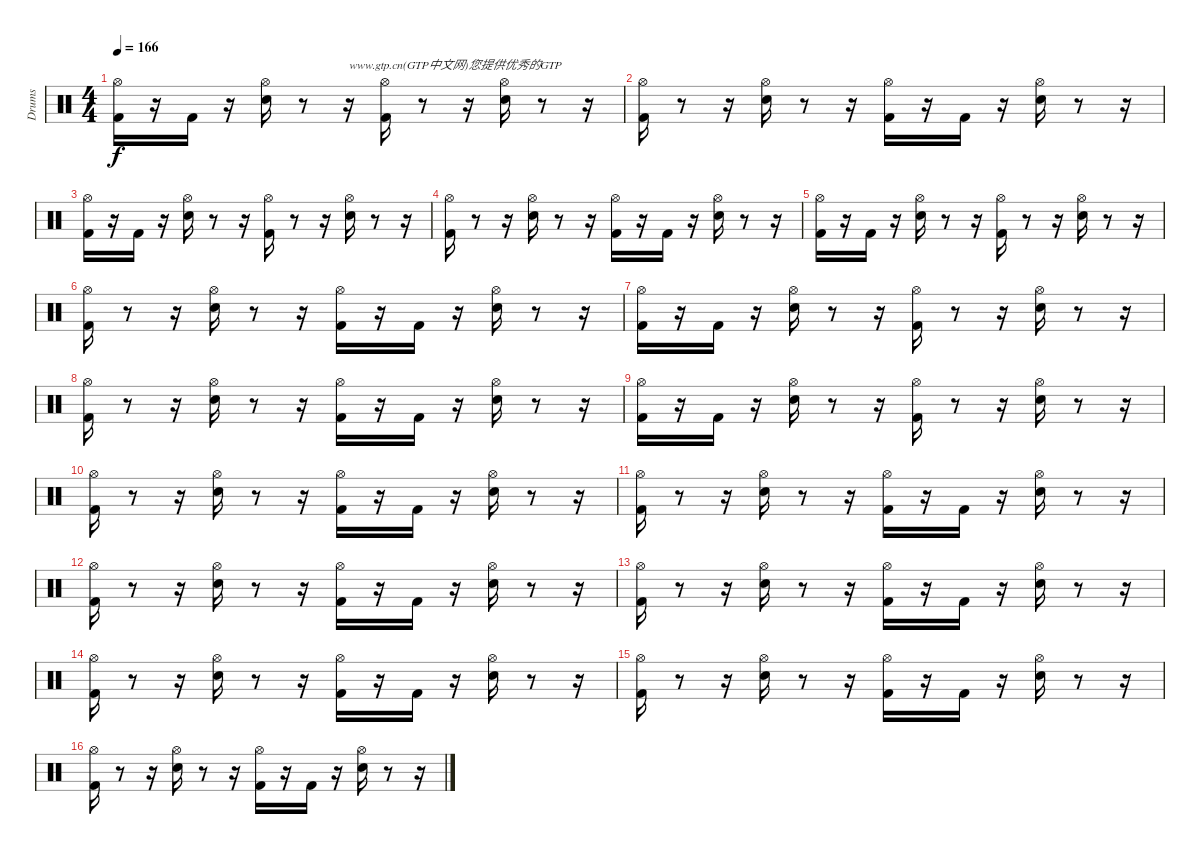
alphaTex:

\track ("Drums" "Drums") {instrument percussion}
\staff {score}
\articulation defaults
\ts (4 4)
\tempo 166
\clef neutral
\ks c
("Hi-Hat (open)" "Kick (hit) 2").16{dy f} r.16 "Kick (hit) 2".16 r.16 ("Snare (hit) 2" "Hi-Hat (open)").16 r.8 r.16{txt "www.gtp.cn(GTP中文网)您提供优秀的GTP"} ("Hi-Hat (open)" "Kick (hit) 2").16 r.8 r.16 ("Hi-Hat (open)" "Snare (hit) 2").16 r.8 r.16 |
("Hi-Hat (open)" "Kick (hit) 2").16 r.8 r.16 ("Snare (hit) 2" "Hi-Hat (open)").16 r.8 r.16 ("Kick (hit) 2" "Hi-Hat (open)").16 r.16 "Kick (hit) 2".16 r.16 ("Hi-Hat (open)" "Snare (hit) 2").16 r.8 r.16 |
("Hi-Hat (open)" "Kick (hit) 2").16 r.16 "Kick (hit) 2".16 r.16 ("Snare (hit) 2" "Hi-Hat (open)").16 r.8 r.16 ("Hi-Hat (open)" "Kick (hit) 2").16 r.8 r.16 ("Hi-Hat (open)" "Snare (hit) 2").16 r.8 r.16 |
("Hi-Hat (open)" "Kick (hit) 2").16 r.8 r.16 ("Snare (hit) 2" "Hi-Hat (open)").16 r.8 r.16 ("Kick (hit) 2" "Hi-Hat (open)").16 r.16 "Kick (hit) 2".16 r.16 ("Hi-Hat (open)" "Snare (hit) 2").16 r.8 r.16 |
("Hi-Hat (open)" "Kick (hit) 2").16 r.16 "Kick (hit) 2".16 r.16 ("Snare (hit) 2" "Hi-Hat (open)").16 r.8 r.16 ("Hi-Hat (open)" "Kick (hit) 2").16 r.8 r.16 ("Hi-Hat (open)" "Snare (hit) 2").16 r.8 r.16 |
("Hi-Hat (open)" "Kick (hit) 2").16 r.8 r.16 ("Snare (hit) 2" "Hi-Hat (open)").16 r.8 r.16 ("Kick (hit) 2" "Hi-Hat (open)").16 r.16 "Kick (hit) 2".16 r.16 ("Hi-Hat (open)" "Snare (hit) 2").16 r.8 r.16 |
("Hi-Hat (open)" "Kick (hit) 2").16 r.16 "Kick (hit) 2".16 r.16 ("Snare (hit) 2" "Hi-Hat (open)").16 r.8 r.16 ("Hi-Hat (open)" "Kick (hit) 2").16 r.8 r.16 ("Hi-Hat (open)" "Snare (hit) 2").16 r.8 r.16 |
("Hi-Hat (open)" "Kick (hit) 2").16 r.8 r.16 ("Snare (hit) 2" "Hi-Hat (open)").16 r.8 r.16 ("Kick (hit) 2" "Hi-Hat (open)").16 r.16 "Kick (hit) 2".16 r.16 ("Hi-Hat (open)" "Snare (hit) 2").16 r.8 r.16 |
("Hi-Hat (open)" "Kick (hit) 2").16 r.16 "Kick (hit) 2".16 r.16 ("Snare (hit) 2" "Hi-Hat (open)").16 r.8 r.16 ("Hi-Hat (open)" "Kick (hit) 2").16 r.8 r.16 ("Hi-Hat (open)" "Snare (hit) 2").16 r.8 r.16 |
("Hi-Hat (open)" "Kick (hit) 2").16 r.8 r.16 ("Snare (hit) 2" "Hi-Hat (open)").16 r.8 r.16 ("Kick (hit) 2" "Hi-Hat (open)").16 r.16 "Kick (hit) 2".16 r.16 ("Hi-Hat (open)" "Snare (hit) 2").16 r.8 r.16 |
("Hi-Hat (open)" "Kick (hit) 2").16 r.8 r.16 ("Snare (hit) 2" "Hi-Hat (open)").16 r.8 r.16 ("Kick (hit) 2" "Hi-Hat (open)").16 r.16 "Kick (hit) 2".16 r.16 ("Hi-Hat (open)" "Snare (hit) 2").16 r.8 r.16 |
("Hi-Hat (open)" "Kick (hit) 2").16 r.8 r.16 ("Snare (hit) 2" "Hi-Hat (open)").16 r.8 r.16 ("Kick (hit) 2" "Hi-Hat (open)").16 r.16 "Kick (hit) 2".16 r.16 ("Hi-Hat (open)" "Snare (hit) 2").16 r.8 r.16 |
("Hi-Hat (open)" "Kick (hit) 2").16 r.8 r.16 ("Snare (hit) 2" "Hi-Hat (open)").16 r.8 r.16 ("Kick (hit) 2" "Hi-Hat (open)").16 r.16 "Kick (hit) 2".16 r.16 ("Hi-Hat (open)" "Snare (hit) 2").16 r.8 r.16 |
("Hi-Hat (open)" "Kick (hit) 2").16 r.8 r.16 ("Snare (hit) 2" "Hi-Hat (open)").16 r.8 r.16 ("Kick (hit) 2" "Hi-Hat (open)").16 r.16 "Kick (hit) 2".16 r.16 ("Hi-Hat (open)" "Snare (hit) 2").16 r.8 r.16 |
("Hi-Hat (open)" "Kick (hit) 2").16 r.8 r.16 ("Snare (hit) 2" "Hi-Hat (open)").16 r.8 r.16 ("Kick (hit) 2" "Hi-Hat (open)").16 r.16 "Kick (hit) 2".16 r.16 ("Hi-Hat (open)" "Snare (hit) 2").16 r.8 r.16 |
("Hi-Hat (open)" "Kick (hit) 2").16 r.8 r.16 ("Snare (hit) 2" "Hi-Hat (open)").16 r.8 r.16 ("Kick (hit) 2" "Hi-Hat (open)").16 r.16 "Kick (hit) 2".16 r.16 ("Hi-Hat (open)" "Snare (hit) 2").16 r.8 r.16
